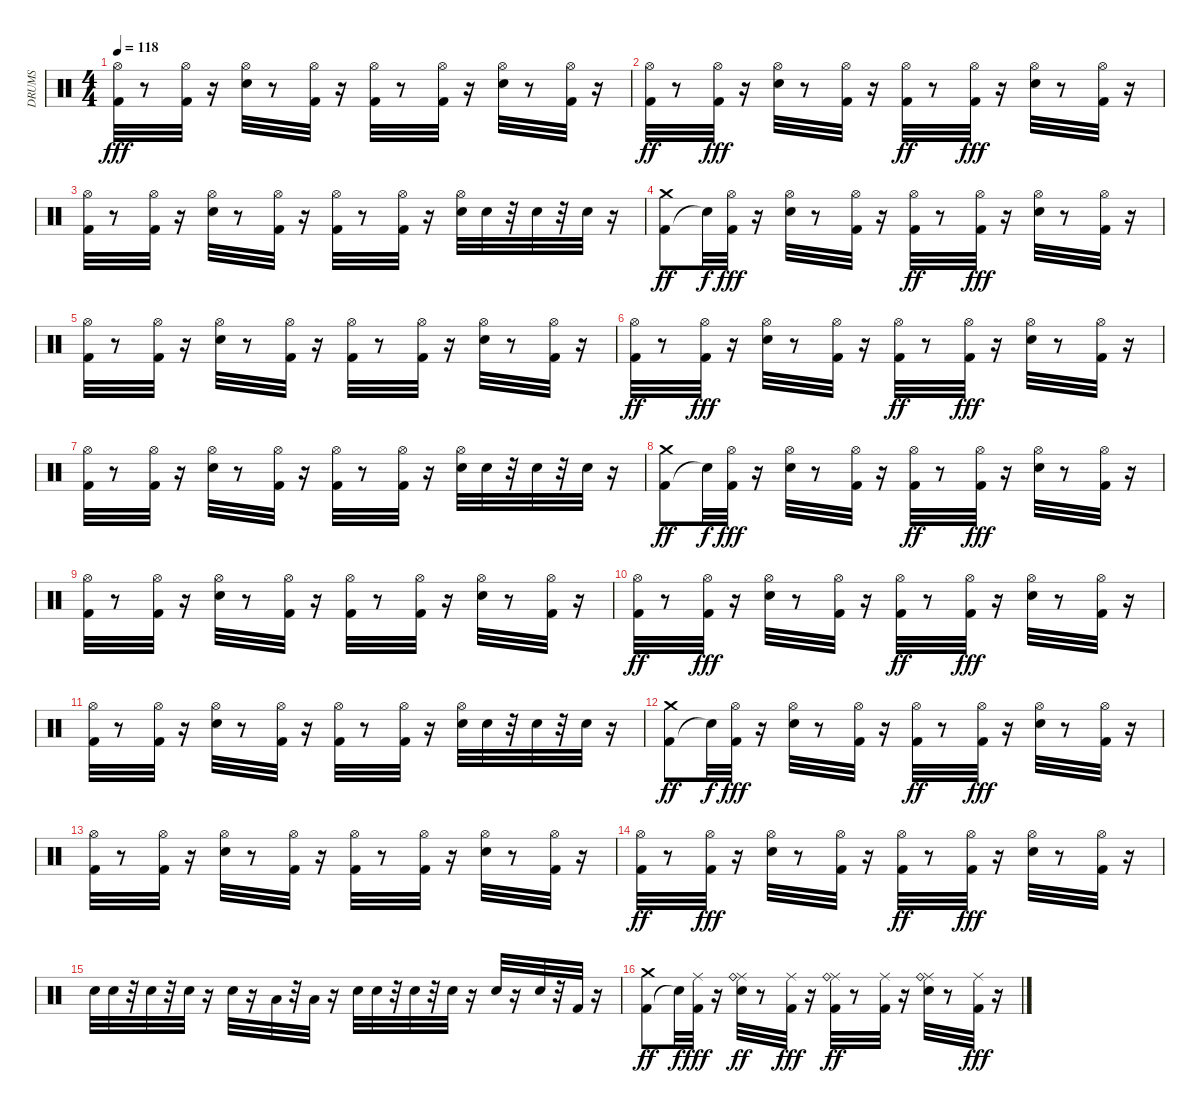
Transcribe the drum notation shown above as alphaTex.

\track ("DRUMS" "DRUMS") {instrument percussion}
\staff {score}
\articulation defaults
\ts (4 4)
\tempo 118
\clef neutral
\ks c
("Hi-Hat (open)" "Kick (hit) 2").32{dy fff} r.8 ("Hi-Hat (open)" "Kick (hit) 2").32 r.16 ("Snare (hit) 2" "Hi-Hat (open)").32 r.8 ("Hi-Hat (open)" "Kick (hit) 2").32 r.16 ("Hi-Hat (open)" "Kick (hit) 2").32 r.8 ("Hi-Hat (open)" "Kick (hit) 2").32 r.16 ("Hi-Hat (open)" "Snare (hit) 2").32 r.8 ("Hi-Hat (open)" "Kick (hit) 2").32 r.16 |
("Kick (hit) 2" "Hi-Hat (open)").32{dy ff} r.8 ("Hi-Hat (open)" "Kick (hit) 2").32{dy fff} r.16 ("Hi-Hat (open)" "Snare (hit) 2").32 r.8 ("Kick (hit) 2" "Hi-Hat (open)").32 r.16 ("Kick (hit) 2" "Hi-Hat (open)").32{dy ff} r.8 ("Hi-Hat (open)" "Kick (hit) 2").32{dy fff} r.16 ("Snare (hit) 2" "Hi-Hat (open)").32 r.8 ("Hi-Hat (open)" "Kick (hit) 2").32 r.16 |
("Hi-Hat (open)" "Kick (hit) 2").32 r.8 ("Hi-Hat (open)" "Kick (hit) 2").32 r.16 ("Hi-Hat (open)" "Snare (hit) 2").32 r.8 ("Hi-Hat (open)" "Kick (hit) 2").32 r.16 ("Hi-Hat (open)" "Kick (hit) 2").32 r.8 ("Hi-Hat (open)" "Kick (hit) 2").32 r.16 ("Hi-Hat (open)" "Snare (hit) 2").32 "Snare (hit) 2".32 r.32 "Snare (hit) 2".32 r.32 "Snare (hit) 2".32 r.16 |
("Kick (hit) 2" "Crash medium (hit)").8{dy ff} "Snare (hit)"{t}.32{dy f} ("Kick (hit) 2" "Hi-Hat (open)").32{dy fff} r.16 ("Hi-Hat (open)" "Snare (hit) 2").32 r.8 ("Kick (hit) 2" "Hi-Hat (open)").32 r.16 ("Kick (hit) 2" "Hi-Hat (open)").32{dy ff} r.8 ("Hi-Hat (open)" "Kick (hit) 2").32{dy fff} r.16 ("Hi-Hat (open)" "Snare (hit) 2").32 r.8 ("Hi-Hat (open)" "Kick (hit) 2").32 r.16 |
("Hi-Hat (open)" "Kick (hit) 2").32 r.8 ("Hi-Hat (open)" "Kick (hit) 2").32 r.16 ("Snare (hit) 2" "Hi-Hat (open)").32 r.8 ("Hi-Hat (open)" "Kick (hit) 2").32 r.16 ("Hi-Hat (open)" "Kick (hit) 2").32 r.8 ("Hi-Hat (open)" "Kick (hit) 2").32 r.16 ("Hi-Hat (open)" "Snare (hit) 2").32 r.8 ("Hi-Hat (open)" "Kick (hit) 2").32 r.16 |
("Kick (hit) 2" "Hi-Hat (open)").32{dy ff} r.8 ("Hi-Hat (open)" "Kick (hit) 2").32{dy fff} r.16 ("Hi-Hat (open)" "Snare (hit) 2").32 r.8 ("Kick (hit) 2" "Hi-Hat (open)").32 r.16 ("Kick (hit) 2" "Hi-Hat (open)").32{dy ff} r.8 ("Hi-Hat (open)" "Kick (hit) 2").32{dy fff} r.16 ("Snare (hit) 2" "Hi-Hat (open)").32 r.8 ("Hi-Hat (open)" "Kick (hit) 2").32 r.16 |
("Hi-Hat (open)" "Kick (hit) 2").32 r.8 ("Hi-Hat (open)" "Kick (hit) 2").32 r.16 ("Hi-Hat (open)" "Snare (hit) 2").32 r.8 ("Hi-Hat (open)" "Kick (hit) 2").32 r.16 ("Hi-Hat (open)" "Kick (hit) 2").32 r.8 ("Hi-Hat (open)" "Kick (hit) 2").32 r.16 ("Hi-Hat (open)" "Snare (hit) 2").32 "Snare (hit) 2".32 r.32 "Snare (hit) 2".32 r.32 "Snare (hit) 2".32 r.16 |
("Kick (hit) 2" "Crash medium (hit)").8{dy ff} "Snare (hit)"{t}.32{dy f} ("Kick (hit) 2" "Hi-Hat (open)").32{dy fff} r.16 ("Hi-Hat (open)" "Snare (hit) 2").32 r.8 ("Kick (hit) 2" "Hi-Hat (open)").32 r.16 ("Kick (hit) 2" "Hi-Hat (open)").32{dy ff} r.8 ("Hi-Hat (open)" "Kick (hit) 2").32{dy fff} r.16 ("Hi-Hat (open)" "Snare (hit) 2").32 r.8 ("Hi-Hat (open)" "Kick (hit) 2").32 r.16 |
("Hi-Hat (open)" "Kick (hit) 2").32 r.8 ("Hi-Hat (open)" "Kick (hit) 2").32 r.16 ("Snare (hit) 2" "Hi-Hat (open)").32 r.8 ("Hi-Hat (open)" "Kick (hit) 2").32 r.16 ("Hi-Hat (open)" "Kick (hit) 2").32 r.8 ("Hi-Hat (open)" "Kick (hit) 2").32 r.16 ("Hi-Hat (open)" "Snare (hit) 2").32 r.8 ("Hi-Hat (open)" "Kick (hit) 2").32 r.16 |
("Kick (hit) 2" "Hi-Hat (open)").32{dy ff} r.8 ("Hi-Hat (open)" "Kick (hit) 2").32{dy fff} r.16 ("Hi-Hat (open)" "Snare (hit) 2").32 r.8 ("Kick (hit) 2" "Hi-Hat (open)").32 r.16 ("Kick (hit) 2" "Hi-Hat (open)").32{dy ff} r.8 ("Hi-Hat (open)" "Kick (hit) 2").32{dy fff} r.16 ("Snare (hit) 2" "Hi-Hat (open)").32 r.8 ("Hi-Hat (open)" "Kick (hit) 2").32 r.16 |
("Hi-Hat (open)" "Kick (hit) 2").32 r.8 ("Hi-Hat (open)" "Kick (hit) 2").32 r.16 ("Hi-Hat (open)" "Snare (hit) 2").32 r.8 ("Hi-Hat (open)" "Kick (hit) 2").32 r.16 ("Hi-Hat (open)" "Kick (hit) 2").32 r.8 ("Hi-Hat (open)" "Kick (hit) 2").32 r.16 ("Hi-Hat (open)" "Snare (hit) 2").32 "Snare (hit) 2".32 r.32 "Snare (hit) 2".32 r.32 "Snare (hit) 2".32 r.16 |
("Kick (hit) 2" "Crash medium (hit)").8{dy ff} "Snare (hit)"{t}.32{dy f} ("Kick (hit) 2" "Hi-Hat (open)").32{dy fff} r.16 ("Hi-Hat (open)" "Snare (hit) 2").32 r.8 ("Kick (hit) 2" "Hi-Hat (open)").32 r.16 ("Kick (hit) 2" "Hi-Hat (open)").32{dy ff} r.8 ("Hi-Hat (open)" "Kick (hit) 2").32{dy fff} r.16 ("Hi-Hat (open)" "Snare (hit) 2").32 r.8 ("Hi-Hat (open)" "Kick (hit) 2").32 r.16 |
("Hi-Hat (open)" "Kick (hit) 2").32 r.8 ("Hi-Hat (open)" "Kick (hit) 2").32 r.16 ("Snare (hit) 2" "Hi-Hat (open)").32 r.8 ("Hi-Hat (open)" "Kick (hit) 2").32 r.16 ("Hi-Hat (open)" "Kick (hit) 2").32 r.8 ("Hi-Hat (open)" "Kick (hit) 2").32 r.16 ("Hi-Hat (open)" "Snare (hit) 2").32 r.8 ("Hi-Hat (open)" "Kick (hit) 2").32 r.16 |
("Kick (hit) 2" "Hi-Hat (open)").32{dy ff} r.8 ("Hi-Hat (open)" "Kick (hit) 2").32{dy fff} r.16 ("Hi-Hat (open)" "Snare (hit) 2").32 r.8 ("Kick (hit) 2" "Hi-Hat (open)").32 r.16 ("Kick (hit) 2" "Hi-Hat (open)").32{dy ff} r.8 ("Hi-Hat (open)" "Kick (hit) 2").32{dy fff} r.16 ("Snare (hit) 2" "Hi-Hat (open)").32 r.8 ("Hi-Hat (open)" "Kick (hit) 2").32 r.16 |
"Snare (hit) 2".32 "Snare (hit) 2".32 r.32 "Snare (hit) 2".32 r.32 "Snare (hit) 2".32 r.16 "Snare (hit) 2".32 r.16 "Low Tom (hit)".32 r.32 "Low Floor Tom (hit)".32 r.16 "Snare (hit) 2".32 "Snare (hit) 2".32 r.32 "Snare (hit) 2".32 r.32 "Snare (hit) 2".32 r.16 "Snare (hit) 2".32 r.16 "Snare (hit) 2".32 r.32 "Kick (hit) 2".32 r.16 |
("Kick (hit) 2" "Crash medium (hit)").8{dy ff} "Snare (hit)"{t}.32{dy f} ("Ride (middle)" "Kick (hit) 2").32{dy fff} r.16 ("Snare (hit) 2" "Ride (middle)" "Ride (bell)").32{dy ff} r.8 ("Ride (middle)" "Kick (hit) 2").32{dy fff} r.16 ("Kick (hit) 2" "Ride (middle)" "Ride (bell)").32{dy ff} r.8 ("Kick (hit) 2" "Ride (middle)").32 r.16 ("Snare (hit) 2" "Ride (middle)" "Ride (bell)").32 r.8 ("Ride (middle)" "Kick (hit) 2").32{dy fff} r.16
